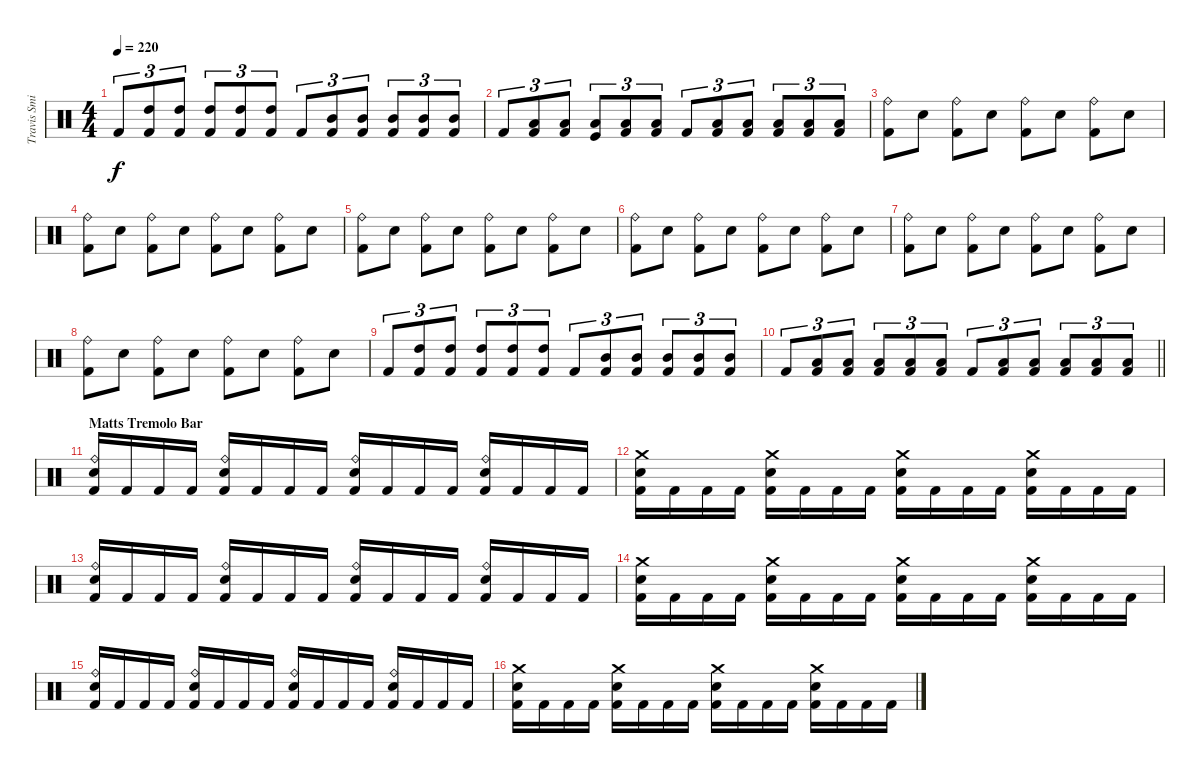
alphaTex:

\track ("Travis Smith" "Travis Smi") {instrument percussion}
\staff {score}
\articulation defaults
\ts (4 4)
\tempo 220
\clef neutral
\ks c "Kick (hit) 2".8{tu (3 2) dy f}
("High Tom (hit)" "Kick (hit) 2").8{tu (3 2)} ("High Tom (hit)" "Kick (hit) 2").8{tu (3 2)} ("High Tom (hit)" "Kick (hit) 2").8{tu (3 2)} ("High Tom (hit)" "Kick (hit) 2").8{tu (3 2)} ("High Tom (hit)" "Kick (hit) 2").8{tu (3 2)} "Kick (hit) 2".8{tu (3 2)} ("Mid Tom (hit)" "Kick (hit) 2").8{tu (3 2)} ("Mid Tom (hit)" "Kick (hit) 2").8{tu (3 2)} ("Mid Tom (hit)" "Kick (hit) 2").8{tu (3 2)} ("Mid Tom (hit)" "Kick (hit) 2").8{tu (3 2)} ("Mid Tom (hit)" "Kick (hit) 2").8{tu (3 2)} |
"Kick (hit) 2".8{tu (3 2)} ("Low Tom (hit)" "Kick (hit) 2").8{tu (3 2)} ("Low Tom (hit)" "Kick (hit) 2").8{tu (3 2)} ("Low Tom (hit)" "Kick (hit)").8{tu (3 2)} ("Low Tom (hit)" "Kick (hit) 2").8{tu (3 2)} ("Low Tom (hit)" "Kick (hit) 2").8{tu (3 2)} "Kick (hit) 2".8{tu (3 2)} ("Low Floor Tom (hit)" "Kick (hit) 2").8{tu (3 2)} ("Low Floor Tom (hit)" "Kick (hit) 2").8{tu (3 2)} ("Low Floor Tom (hit)" "Kick (hit) 2").8{tu (3 2)} ("Low Floor Tom (hit)" "Kick (hit) 2").8{tu (3 2)} ("Low Floor Tom (hit)" "Kick (hit) 2").8{tu (3 2)} |
("Ride (bell)" "Kick (hit) 2").8 "Electric Snare (hit)".8 ("Ride (bell)" "Kick (hit) 2").8 "Electric Snare (hit)".8 ("Ride (bell)" "Kick (hit) 2").8 "Electric Snare (hit)".8 ("Ride (bell)" "Kick (hit) 2").8 "Electric Snare (hit)".8 |
("Ride (bell)" "Kick (hit) 2").8 "Electric Snare (hit)".8 ("Ride (bell)" "Kick (hit) 2").8 "Electric Snare (hit)".8 ("Ride (bell)" "Kick (hit) 2").8 "Electric Snare (hit)".8 ("Ride (bell)" "Kick (hit) 2").8 "Electric Snare (hit)".8 |
("Ride (bell)" "Kick (hit) 2").8 "Electric Snare (hit)".8 ("Ride (bell)" "Kick (hit) 2").8 "Electric Snare (hit)".8 ("Ride (bell)" "Kick (hit) 2").8 "Electric Snare (hit)".8 ("Ride (bell)" "Kick (hit) 2").8 "Electric Snare (hit)".8 |
("Ride (bell)" "Kick (hit) 2").8 "Electric Snare (hit)".8 ("Ride (bell)" "Kick (hit) 2").8 "Electric Snare (hit)".8 ("Ride (bell)" "Kick (hit) 2").8 "Electric Snare (hit)".8 ("Ride (bell)" "Kick (hit) 2").8 "Electric Snare (hit)".8 |
("Ride (bell)" "Kick (hit) 2").8 "Electric Snare (hit)".8 ("Ride (bell)" "Kick (hit) 2").8 "Electric Snare (hit)".8 ("Ride (bell)" "Kick (hit) 2").8 "Electric Snare (hit)".8 ("Ride (bell)" "Kick (hit) 2").8 "Electric Snare (hit)".8 |
("Ride (bell)" "Kick (hit) 2").8 "Electric Snare (hit)".8 ("Ride (bell)" "Kick (hit) 2").8 "Electric Snare (hit)".8 ("Ride (bell)" "Kick (hit) 2").8 "Electric Snare (hit)".8 ("Ride (bell)" "Kick (hit) 2").8 "Electric Snare (hit)".8 |
"Kick (hit) 2".8{tu (3 2)} ("High Tom (hit)" "Kick (hit) 2").8{tu (3 2)} ("High Tom (hit)" "Kick (hit) 2").8{tu (3 2)} ("High Tom (hit)" "Kick (hit) 2").8{tu (3 2)} ("High Tom (hit)" "Kick (hit) 2").8{tu (3 2)} ("High Tom (hit)" "Kick (hit) 2").8{tu (3 2)} "Kick (hit) 2".8{tu (3 2)} ("Mid Tom (hit)" "Kick (hit) 2").8{tu (3 2)} ("Mid Tom (hit)" "Kick (hit) 2").8{tu (3 2)} ("Mid Tom (hit)" "Kick (hit) 2").8{tu (3 2)} ("Mid Tom (hit)" "Kick (hit) 2").8{tu (3 2)} ("Mid Tom (hit)" "Kick (hit) 2").8{tu (3 2)} |
\barLineRight lightlight "Kick (hit) 2".8{tu (3 2)}
("Low Tom (hit)" "Kick (hit) 2").8{tu (3 2)} ("Low Tom (hit)" "Kick (hit) 2").8{tu (3 2)} ("Low Tom (hit)" "Kick (hit) 2").8{tu (3 2)} ("Low Tom (hit)" "Kick (hit) 2").8{tu (3 2)} ("Low Tom (hit)" "Kick (hit) 2").8{tu (3 2)} "Kick (hit) 2".8{tu (3 2)} ("Low Floor Tom (hit)" "Kick (hit) 2").8{tu (3 2)} ("Low Floor Tom (hit)" "Kick (hit) 2").8{tu (3 2)} ("Low Floor Tom (hit)" "Kick (hit) 2").8{tu (3 2)} ("Low Floor Tom (hit)" "Kick (hit) 2").8{tu (3 2)} ("Low Floor Tom (hit)" "Kick (hit) 2").8{tu (3 2)} |
\section ("" "Matts Tremolo Bar")
("Ride (bell)" "Electric Snare (hit)" "Kick (hit) 2").16 "Kick (hit) 2".16 "Kick (hit) 2".16 "Kick (hit) 2".16 ("Ride (bell)" "Electric Snare (hit)" "Kick (hit) 2").16 "Kick (hit) 2".16 "Kick (hit) 2".16 "Kick (hit) 2".16 ("Ride (bell)" "Electric Snare (hit)" "Kick (hit) 2").16 "Kick (hit) 2".16 "Kick (hit) 2".16 "Kick (hit) 2".16 ("Ride (bell)" "Electric Snare (hit)" "Kick (hit) 2").16 "Kick (hit) 2".16 "Kick (hit) 2".16 "Kick (hit) 2".16 |
("Crash medium (hit)" "Electric Snare (hit)" "Kick (hit) 2").16 "Kick (hit) 2".16 "Kick (hit) 2".16 "Kick (hit) 2".16 ("Crash medium (hit)" "Electric Snare (hit)" "Kick (hit) 2").16 "Kick (hit) 2".16 "Kick (hit) 2".16 "Kick (hit) 2".16 ("Crash medium (hit)" "Electric Snare (hit)" "Kick (hit) 2").16 "Kick (hit) 2".16 "Kick (hit) 2".16 "Kick (hit) 2".16 ("Crash medium (hit)" "Electric Snare (hit)" "Kick (hit) 2").16 "Kick (hit) 2".16 "Kick (hit) 2".16 "Kick (hit) 2".16 |
("Ride (bell)" "Electric Snare (hit)" "Kick (hit) 2").16 "Kick (hit) 2".16 "Kick (hit) 2".16 "Kick (hit) 2".16 ("Ride (bell)" "Electric Snare (hit)" "Kick (hit) 2").16 "Kick (hit) 2".16 "Kick (hit) 2".16 "Kick (hit) 2".16 ("Ride (bell)" "Electric Snare (hit)" "Kick (hit) 2").16 "Kick (hit) 2".16 "Kick (hit) 2".16 "Kick (hit) 2".16 ("Ride (bell)" "Electric Snare (hit)" "Kick (hit) 2").16 "Kick (hit) 2".16 "Kick (hit) 2".16 "Kick (hit) 2".16 |
("Crash medium (hit)" "Electric Snare (hit)" "Kick (hit) 2").16 "Kick (hit) 2".16 "Kick (hit) 2".16 "Kick (hit) 2".16 ("Crash medium (hit)" "Electric Snare (hit)" "Kick (hit) 2").16 "Kick (hit) 2".16 "Kick (hit) 2".16 "Kick (hit) 2".16 ("Crash medium (hit)" "Electric Snare (hit)" "Kick (hit) 2").16 "Kick (hit) 2".16 "Kick (hit) 2".16 "Kick (hit) 2".16 ("Crash medium (hit)" "Electric Snare (hit)" "Kick (hit) 2").16 "Kick (hit) 2".16 "Kick (hit) 2".16 "Kick (hit) 2".16 |
("Ride (bell)" "Electric Snare (hit)" "Kick (hit) 2").16 "Kick (hit) 2".16 "Kick (hit) 2".16 "Kick (hit) 2".16 ("Ride (bell)" "Electric Snare (hit)" "Kick (hit) 2").16 "Kick (hit) 2".16 "Kick (hit) 2".16 "Kick (hit) 2".16 ("Ride (bell)" "Electric Snare (hit)" "Kick (hit) 2").16 "Kick (hit) 2".16 "Kick (hit) 2".16 "Kick (hit) 2".16 ("Ride (bell)" "Electric Snare (hit)" "Kick (hit) 2").16 "Kick (hit) 2".16 "Kick (hit) 2".16 "Kick (hit) 2".16 |
("Crash medium (hit)" "Electric Snare (hit)" "Kick (hit) 2").16 "Kick (hit) 2".16 "Kick (hit) 2".16 "Kick (hit) 2".16 ("Crash medium (hit)" "Electric Snare (hit)" "Kick (hit) 2").16 "Kick (hit) 2".16 "Kick (hit) 2".16 "Kick (hit) 2".16 ("Crash medium (hit)" "Electric Snare (hit)" "Kick (hit) 2").16 "Kick (hit) 2".16 "Kick (hit) 2".16 "Kick (hit) 2".16 ("Crash medium (hit)" "Electric Snare (hit)" "Kick (hit) 2").16 "Kick (hit) 2".16 "Kick (hit) 2".16 "Kick (hit) 2".16
